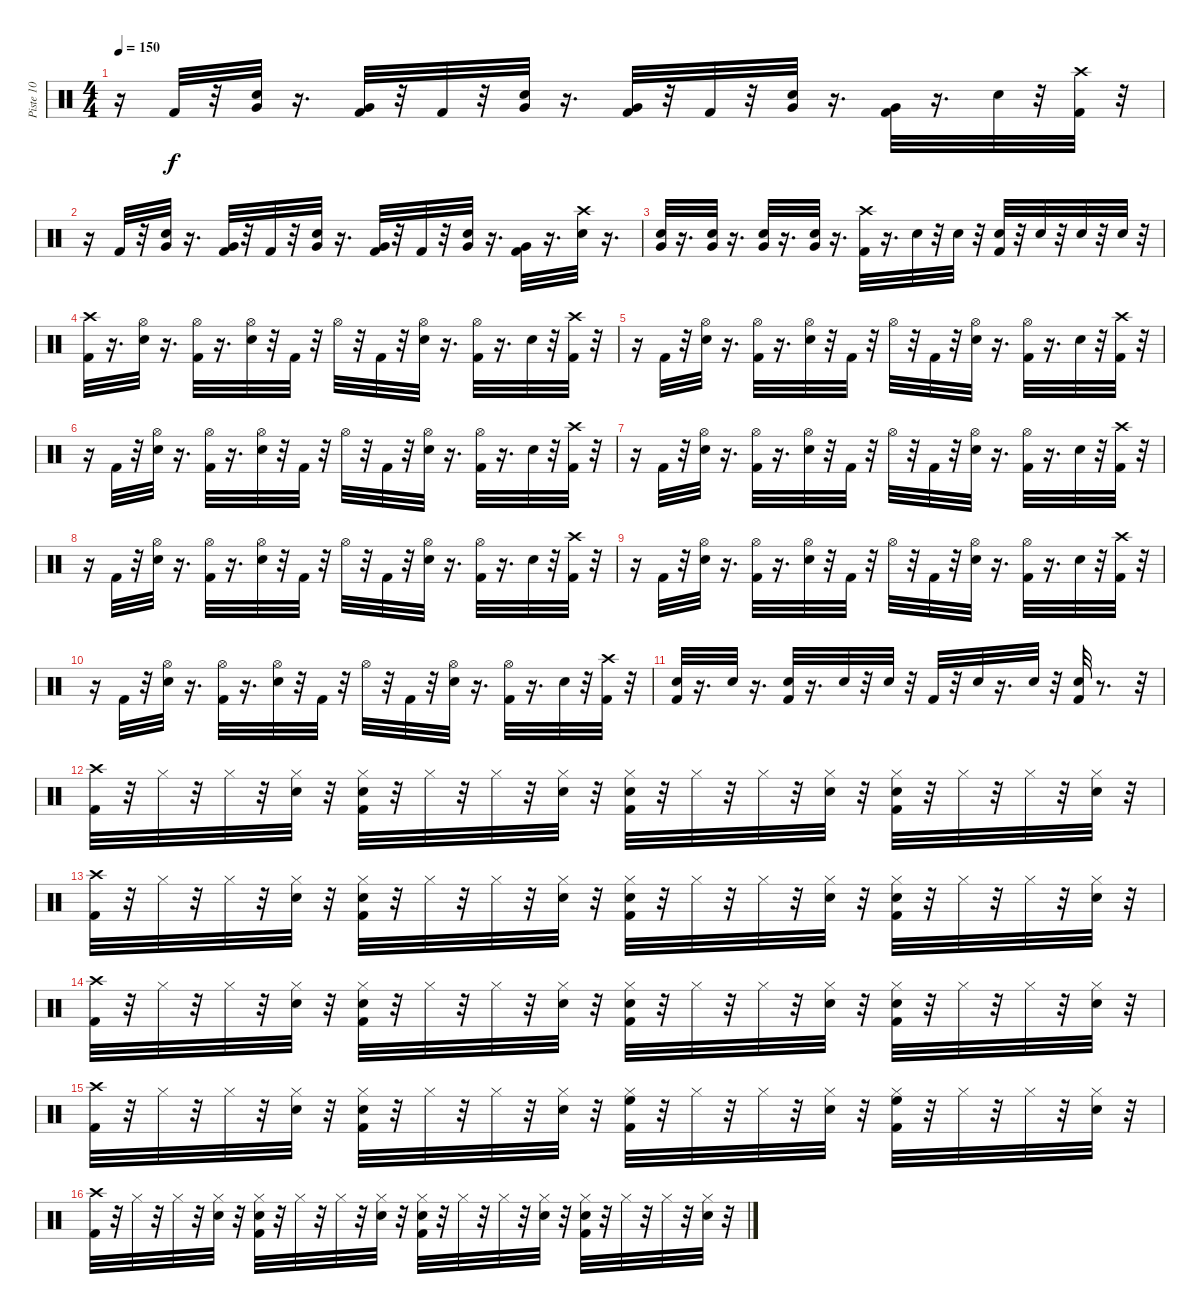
\track ("Piste 10" "Piste 10") {instrument percussion}
\staff {score}
\articulation defaults
\ts (4 4)
\tempo 150
\clef neutral
\ks c
r.16{dy f} "Kick (hit) 2".32 r.32 ("Very Low Tom (hit)" "Snare (hit) 2").32 r.16{d} ("Kick (hit) 2" "Very Low Tom (hit)").32 r.32 "Kick (hit) 2".32 r.32 ("Very Low Tom (hit)" "Snare (hit) 2").32 r.16{d} ("Kick (hit) 2" "Very Low Tom (hit)").32 r.32 "Kick (hit) 2".32 r.32 ("Very Low Tom (hit)" "Snare (hit) 2").32 r.16{d} ("Kick (hit) 2" "Very Low Tom (hit)").32 r.16{d} "Snare (hit) 2".32 r.32 ("Kick (hit) 2" "Crash high (hit)").32 r.32 |
r.16 "Kick (hit) 2".32 r.32 ("Very Low Tom (hit)" "Snare (hit) 2").32 r.16{d} ("Kick (hit) 2" "Very Low Tom (hit)").32 r.32 "Kick (hit) 2".32 r.32 ("Very Low Tom (hit)" "Snare (hit) 2").32 r.16{d} ("Kick (hit) 2" "Very Low Tom (hit)").32 r.32 "Kick (hit) 2".32 r.32 ("Very Low Tom (hit)" "Snare (hit) 2").32 r.16{d} ("Very Low Tom (hit)" "Kick (hit) 2").32 r.16{d} ("Snare (hit) 2" "Crash high (hit)").32 r.16{d} |
("Very Low Tom (hit)" "Snare (hit) 2").32 r.16{d} ("Very Low Tom (hit)" "Snare (hit) 2").32 r.16{d} ("Very Low Tom (hit)" "Snare (hit) 2").32 r.16{d} ("Very Low Tom (hit)" "Snare (hit) 2").32 r.16{d} ("Crash high (hit)" "Kick (hit) 2").32 r.16{d} "Snare (hit) 2".32 r.32 "Snare (hit) 2".32 r.32 ("Kick (hit) 2" "Snare (hit) 2").32 r.32 "Snare (hit) 2".32 r.32 "Snare (hit) 2".32 r.32 "Snare (hit) 2".32 r.32 |
("Crash high (hit)" "Kick (hit) 2").32 r.16{d} ("Hi-Hat (open)" "Snare (hit) 2").32 r.16{d} ("Hi-Hat (open)" "Kick (hit) 2").32 r.16{d} ("Hi-Hat (open)" "Snare (hit) 2").32 r.32 "Kick (hit) 2".32 r.32 "Hi-Hat (open)".32 r.32 "Kick (hit) 2".32 r.32 ("Hi-Hat (open)" "Snare (hit) 2").32 r.16{d} ("Hi-Hat (open)" "Kick (hit) 2").32 r.16{d} "Snare (hit) 2".32 r.32 ("Kick (hit) 2" "Crash high (hit)").32 r.32 |
r.16 "Kick (hit) 2".32 r.32 ("Hi-Hat (open)" "Snare (hit) 2").32 r.16{d} ("Hi-Hat (open)" "Kick (hit) 2").32 r.16{d} ("Snare (hit) 2" "Hi-Hat (open)").32 r.32 "Kick (hit) 2".32 r.32 "Hi-Hat (open)".32 r.32 "Kick (hit) 2".32 r.32 ("Hi-Hat (open)" "Snare (hit) 2").32 r.16{d} ("Hi-Hat (open)" "Kick (hit) 2").32 r.16{d} "Snare (hit) 2".32 r.32 ("Kick (hit) 2" "Crash high (hit)").32 r.32 |
r.16 "Kick (hit) 2".32 r.32 ("Hi-Hat (open)" "Snare (hit) 2").32 r.16{d} ("Hi-Hat (open)" "Kick (hit) 2").32 r.16{d} ("Snare (hit) 2" "Hi-Hat (open)").32 r.32 "Kick (hit) 2".32 r.32 "Hi-Hat (open)".32 r.32 "Kick (hit) 2".32 r.32 ("Hi-Hat (open)" "Snare (hit) 2").32 r.16{d} ("Hi-Hat (open)" "Kick (hit) 2").32 r.16{d} "Snare (hit) 2".32 r.32 ("Kick (hit) 2" "Crash high (hit)").32 r.32 |
r.16 "Kick (hit) 2".32 r.32 ("Hi-Hat (open)" "Snare (hit) 2").32 r.16{d} ("Hi-Hat (open)" "Kick (hit) 2").32 r.16{d} ("Snare (hit) 2" "Hi-Hat (open)").32 r.32 "Kick (hit) 2".32 r.32 "Hi-Hat (open)".32 r.32 "Kick (hit) 2".32 r.32 ("Hi-Hat (open)" "Snare (hit) 2").32 r.16{d} ("Hi-Hat (open)" "Kick (hit) 2").32 r.16{d} "Snare (hit) 2".32 r.32 ("Kick (hit) 2" "Crash high (hit)").32 r.32 |
r.16 "Kick (hit) 2".32 r.32 ("Hi-Hat (open)" "Snare (hit) 2").32 r.16{d} ("Hi-Hat (open)" "Kick (hit) 2").32 r.16{d} ("Snare (hit) 2" "Hi-Hat (open)").32 r.32 "Kick (hit) 2".32 r.32 "Hi-Hat (open)".32 r.32 "Kick (hit) 2".32 r.32 ("Hi-Hat (open)" "Snare (hit) 2").32 r.16{d} ("Hi-Hat (open)" "Kick (hit) 2").32 r.16{d} "Snare (hit) 2".32 r.32 ("Kick (hit) 2" "Crash high (hit)").32 r.32 |
r.16 "Kick (hit) 2".32 r.32 ("Hi-Hat (open)" "Snare (hit) 2").32 r.16{d} ("Hi-Hat (open)" "Kick (hit) 2").32 r.16{d} ("Snare (hit) 2" "Hi-Hat (open)").32 r.32 "Kick (hit) 2".32 r.32 "Hi-Hat (open)".32 r.32 "Kick (hit) 2".32 r.32 ("Hi-Hat (open)" "Snare (hit) 2").32 r.16{d} ("Hi-Hat (open)" "Kick (hit) 2").32 r.16{d} "Snare (hit) 2".32 r.32 ("Kick (hit) 2" "Crash high (hit)").32 r.32 |
r.16 "Kick (hit) 2".32 r.32 ("Hi-Hat (open)" "Snare (hit) 2").32 r.16{d} ("Hi-Hat (open)" "Kick (hit) 2").32 r.16{d} ("Snare (hit) 2" "Hi-Hat (open)").32 r.32 "Kick (hit) 2".32 r.32 "Hi-Hat (open)".32 r.32 "Kick (hit) 2".32 r.32 ("Hi-Hat (open)" "Snare (hit) 2").32 r.16{d} ("Hi-Hat (open)" "Kick (hit) 2").32 r.16{d} "Snare (hit) 2".32 r.32 ("Kick (hit) 2" "Crash high (hit)").32 r.32 |
("Kick (hit) 2" "Snare (hit) 2").32 r.16{d} "Snare (hit) 2".32 r.16{d} ("Kick (hit) 2" "Snare (hit) 2").32 r.16{d} "Snare (hit) 2".32 r.32 "Snare (hit) 2".32 r.32 "Kick (hit) 2".32 r.32 "Snare (hit) 2".32 r.16{d} "Snare (hit) 2".32 r.32 ("Kick (hit) 2" "Snare (hit) 2").32 r.8{d} r.32 |
("Crash high (hit)" "Kick (hit) 2").32 r.32 "Hi-Hat (closed)".32 r.32 "Hi-Hat (closed)".32 r.32 ("Hi-Hat (closed)" "Snare (hit) 2").32 r.32 ("Hi-Hat (closed)" "Snare (hit) 2" "Kick (hit) 2").32 r.32 "Hi-Hat (closed)".32 r.32 "Hi-Hat (closed)".32 r.32 ("Hi-Hat (closed)" "Snare (hit) 2").32 r.32 ("Hi-Hat (closed)" "Snare (hit) 2" "Kick (hit) 2").32 r.32 "Hi-Hat (closed)".32 r.32 "Hi-Hat (closed)".32 r.32 ("Hi-Hat (closed)" "Snare (hit) 2").32 r.32 ("Hi-Hat (closed)" "Snare (hit) 2" "Kick (hit) 2").32 r.32 "Hi-Hat (closed)".32 r.32 "Hi-Hat (closed)".32 r.32 ("Hi-Hat (closed)" "Snare (hit) 2").32 r.32 |
("Crash high (hit)" "Kick (hit) 2").32 r.32 "Hi-Hat (closed)".32 r.32 "Hi-Hat (closed)".32 r.32 ("Hi-Hat (closed)" "Snare (hit) 2").32 r.32 ("Hi-Hat (closed)" "Snare (hit) 2" "Kick (hit) 2").32 r.32 "Hi-Hat (closed)".32 r.32 "Hi-Hat (closed)".32 r.32 ("Hi-Hat (closed)" "Snare (hit) 2").32 r.32 ("Hi-Hat (closed)" "Snare (hit) 2" "Kick (hit) 2").32 r.32 "Hi-Hat (closed)".32 r.32 "Hi-Hat (closed)".32 r.32 ("Hi-Hat (closed)" "Snare (hit) 2").32 r.32 ("Hi-Hat (closed)" "Snare (hit) 2" "Kick (hit) 2").32 r.32 "Hi-Hat (closed)".32 r.32 "Hi-Hat (closed)".32 r.32 ("Hi-Hat (closed)" "Snare (hit) 2").32 r.32 |
("Crash high (hit)" "Kick (hit) 2").32 r.32 "Hi-Hat (closed)".32 r.32 "Hi-Hat (closed)".32 r.32 ("Hi-Hat (closed)" "Snare (hit) 2").32 r.32 ("Hi-Hat (closed)" "Snare (hit) 2" "Kick (hit) 2").32 r.32 "Hi-Hat (closed)".32 r.32 "Hi-Hat (closed)".32 r.32 ("Hi-Hat (closed)" "Snare (hit) 2").32 r.32 ("Hi-Hat (closed)" "Snare (hit) 2" "Kick (hit) 2").32 r.32 "Hi-Hat (closed)".32 r.32 "Hi-Hat (closed)".32 r.32 ("Hi-Hat (closed)" "Snare (hit) 2").32 r.32 ("Hi-Hat (closed)" "Snare (hit) 2" "Kick (hit) 2").32 r.32 "Hi-Hat (closed)".32 r.32 "Hi-Hat (closed)".32 r.32 ("Hi-Hat (closed)" "Snare (hit) 2").32 r.32 |
("Crash high (hit)" "Kick (hit) 2").32 r.32 "Hi-Hat (closed)".32 r.32 "Hi-Hat (closed)".32 r.32 ("Hi-Hat (closed)" "Snare (hit) 2").32 r.32 ("Hi-Hat (closed)" "Snare (hit) 2" "Kick (hit) 2").32 r.32 "Hi-Hat (closed)".32 r.32 "Hi-Hat (closed)".32 r.32 ("Hi-Hat (closed)" "Snare (hit) 2").32 r.32 ("Hi-Hat (closed)" "High Floor Tom (hit)" "Kick (hit) 2").32 r.32 "Hi-Hat (closed)".32 r.32 "Hi-Hat (closed)".32 r.32 ("Hi-Hat (closed)" "Snare (hit) 2").32 r.32 ("Hi-Hat (closed)" "High Floor Tom (hit)" "Kick (hit) 2").32 r.32 "Hi-Hat (closed)".32 r.32 "Hi-Hat (closed)".32 r.32 ("Hi-Hat (closed)" "Snare (hit) 2").32 r.32 |
("Crash high (hit)" "Kick (hit) 2").32 r.32 "Hi-Hat (closed)".32 r.32 "Hi-Hat (closed)".32 r.32 ("Hi-Hat (closed)" "Snare (hit) 2").32 r.32 ("Hi-Hat (closed)" "Snare (hit) 2" "Kick (hit) 2").32 r.32 "Hi-Hat (closed)".32 r.32 "Hi-Hat (closed)".32 r.32 ("Hi-Hat (closed)" "Snare (hit) 2").32 r.32 ("Hi-Hat (closed)" "Snare (hit) 2" "Kick (hit) 2").32 r.32 "Hi-Hat (closed)".32 r.32 "Hi-Hat (closed)".32 r.32 ("Hi-Hat (closed)" "Snare (hit) 2").32 r.32 ("Hi-Hat (closed)" "Snare (hit) 2" "Kick (hit) 2").32 r.32 "Hi-Hat (closed)".32 r.32 "Hi-Hat (closed)".32 r.32 ("Hi-Hat (closed)" "Snare (hit) 2").32 r.32
